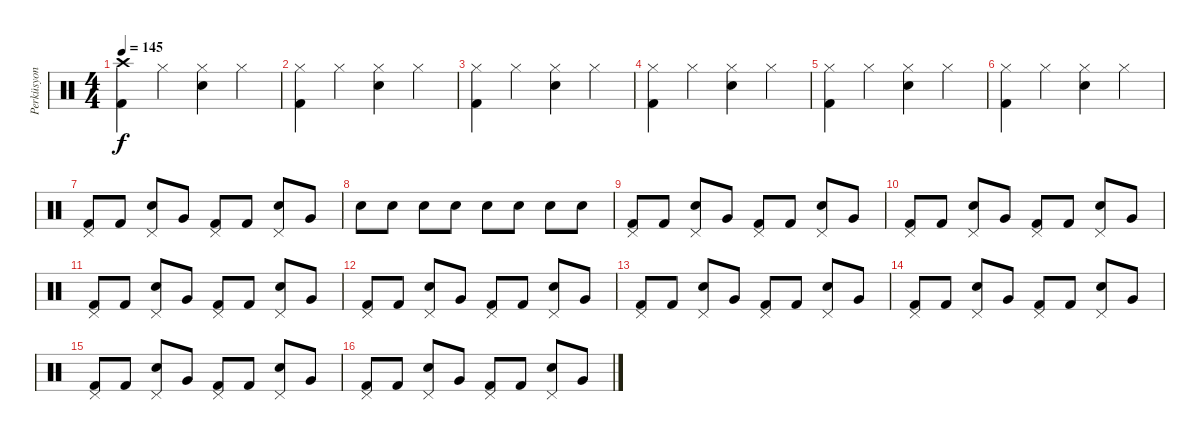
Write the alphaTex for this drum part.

\track ("Perküsyon" "Perküsyon") {instrument percussion}
\staff {score}
\articulation defaults
\ts (4 4)
\tempo 145
\clef neutral
\ks c
("Crash high (hit)" "Kick (hit) 2").4{dy f} "Hi-Hat (closed)".4 ("Hi-Hat (closed)" "Snare (hit) 2").4 "Hi-Hat (closed)".4 |
("Hi-Hat (closed)" "Kick (hit) 2").4 "Hi-Hat (closed)".4 ("Hi-Hat (closed)" "Snare (hit) 2").4 "Hi-Hat (closed)".4 |
("Hi-Hat (closed)" "Kick (hit) 2").4 "Hi-Hat (closed)".4 ("Hi-Hat (closed)" "Snare (hit) 2").4 "Hi-Hat (closed)".4 |
("Hi-Hat (closed)" "Kick (hit) 2").4 "Hi-Hat (closed)".4 ("Hi-Hat (closed)" "Snare (hit) 2").4 "Hi-Hat (closed)".4 |
("Hi-Hat (closed)" "Kick (hit) 2").4 "Hi-Hat (closed)".4 ("Hi-Hat (closed)" "Snare (hit) 2").4 "Hi-Hat (closed)".4 |
("Hi-Hat (closed)" "Kick (hit) 2").4 "Hi-Hat (closed)".4 ("Hi-Hat (closed)" "Snare (hit) 2").4 "Hi-Hat (closed)".4 |
("Pedal Hi-Hat (hit)" "Kick (hit) 2").8 "Kick (hit) 2".8 ("Pedal Hi-Hat (hit)" "Snare (hit) 2").8 "Very Low Tom (hit)".8 ("Pedal Hi-Hat (hit)" "Kick (hit) 2").8 "Kick (hit) 2".8 ("Pedal Hi-Hat (hit)" "Snare (hit) 2").8 "Very Low Tom (hit)".8 |
"Electric Snare (hit)".8 "Electric Snare (hit)".8 "Electric Snare (hit)".8 "Electric Snare (hit)".8 "Electric Snare (hit)".8 "Electric Snare (hit)".8 "Electric Snare (hit)".8 "Electric Snare (hit)".8 |
("Pedal Hi-Hat (hit)" "Kick (hit) 2").8 "Kick (hit) 2".8 ("Pedal Hi-Hat (hit)" "Snare (hit) 2").8 "Very Low Tom (hit)".8 ("Pedal Hi-Hat (hit)" "Kick (hit) 2").8 "Kick (hit) 2".8 ("Pedal Hi-Hat (hit)" "Snare (hit) 2").8 "Very Low Tom (hit)".8 |
("Pedal Hi-Hat (hit)" "Kick (hit) 2").8 "Kick (hit) 2".8 ("Pedal Hi-Hat (hit)" "Snare (hit) 2").8 "Very Low Tom (hit)".8 ("Pedal Hi-Hat (hit)" "Kick (hit) 2").8 "Kick (hit) 2".8 ("Pedal Hi-Hat (hit)" "Snare (hit) 2").8 "Very Low Tom (hit)".8 |
("Pedal Hi-Hat (hit)" "Kick (hit) 2").8 "Kick (hit) 2".8 ("Pedal Hi-Hat (hit)" "Snare (hit) 2").8 "Very Low Tom (hit)".8 ("Pedal Hi-Hat (hit)" "Kick (hit) 2").8 "Kick (hit) 2".8 ("Pedal Hi-Hat (hit)" "Snare (hit) 2").8 "Very Low Tom (hit)".8 |
("Pedal Hi-Hat (hit)" "Kick (hit) 2").8 "Kick (hit) 2".8 ("Pedal Hi-Hat (hit)" "Snare (hit) 2").8 "Very Low Tom (hit)".8 ("Pedal Hi-Hat (hit)" "Kick (hit) 2").8 "Kick (hit) 2".8 ("Pedal Hi-Hat (hit)" "Snare (hit) 2").8 "Very Low Tom (hit)".8 |
("Pedal Hi-Hat (hit)" "Kick (hit) 2").8 "Kick (hit) 2".8 ("Pedal Hi-Hat (hit)" "Snare (hit) 2").8 "Very Low Tom (hit)".8 ("Pedal Hi-Hat (hit)" "Kick (hit) 2").8 "Kick (hit) 2".8 ("Pedal Hi-Hat (hit)" "Snare (hit) 2").8 "Very Low Tom (hit)".8 |
("Pedal Hi-Hat (hit)" "Kick (hit) 2").8 "Kick (hit) 2".8 ("Pedal Hi-Hat (hit)" "Snare (hit) 2").8 "Very Low Tom (hit)".8 ("Pedal Hi-Hat (hit)" "Kick (hit) 2").8 "Kick (hit) 2".8 ("Pedal Hi-Hat (hit)" "Snare (hit) 2").8 "Very Low Tom (hit)".8 |
("Pedal Hi-Hat (hit)" "Kick (hit) 2").8 "Kick (hit) 2".8 ("Pedal Hi-Hat (hit)" "Snare (hit) 2").8 "Very Low Tom (hit)".8 ("Pedal Hi-Hat (hit)" "Kick (hit) 2").8 "Kick (hit) 2".8 ("Pedal Hi-Hat (hit)" "Snare (hit) 2").8 "Very Low Tom (hit)".8 |
("Pedal Hi-Hat (hit)" "Kick (hit) 2").8 "Kick (hit) 2".8 ("Pedal Hi-Hat (hit)" "Snare (hit) 2").8 "Very Low Tom (hit)".8 ("Pedal Hi-Hat (hit)" "Kick (hit) 2").8 "Kick (hit) 2".8 ("Pedal Hi-Hat (hit)" "Snare (hit) 2").8 "Very Low Tom (hit)".8
